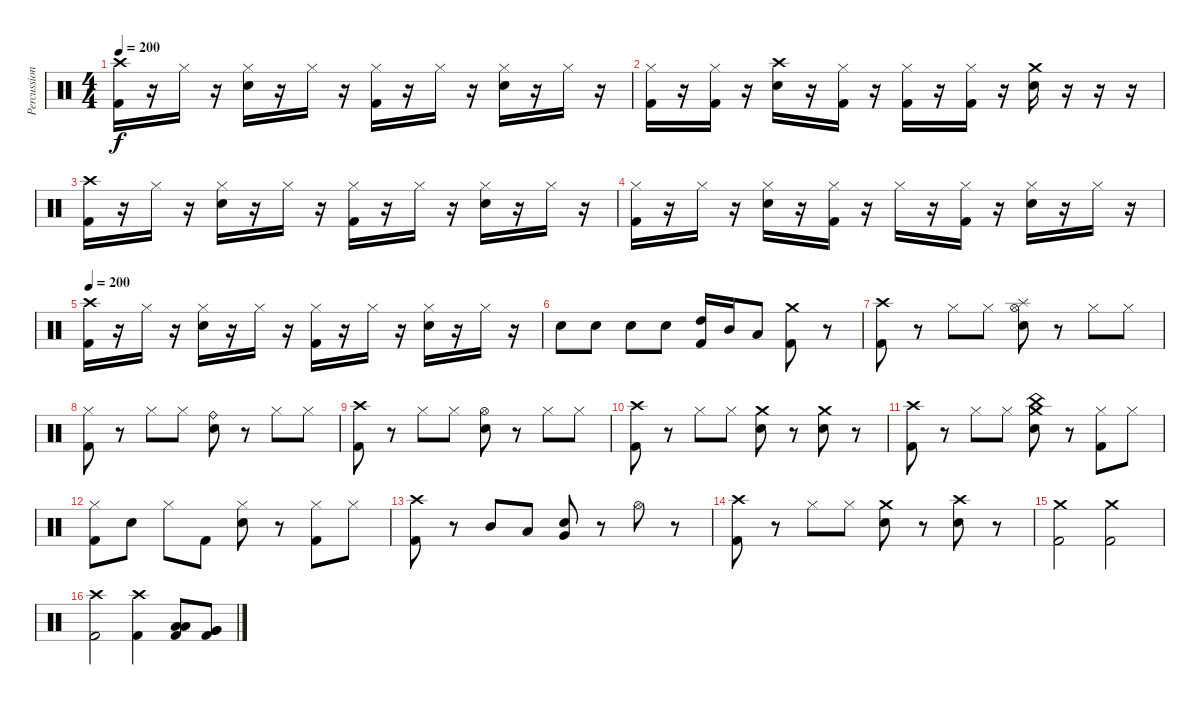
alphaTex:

\track ("Percussion" "Percussion") {instrument percussion}
\staff {score}
\articulation defaults
\ts (4 4)
\tempo 200
\clef neutral
\ks c
("Crash high (hit)" "Kick (hit) 2").16{dy f} r.16 "Hi-Hat (closed)".16 r.16 ("Hi-Hat (closed)" "Snare (hit) 2").16 r.16 "Hi-Hat (closed)".16 r.16 ("Hi-Hat (closed)" "Kick (hit) 2").16 r.16 "Hi-Hat (closed)".16 r.16 ("Hi-Hat (closed)" "Snare (hit) 2").16 r.16 "Hi-Hat (closed)".16 r.16 |
("Hi-Hat (closed)" "Kick (hit) 2").16 r.16 ("Hi-Hat (closed)" "Kick (hit) 2").16 r.16 ("Crash high (hit)" "Snare (hit) 2").16 r.16 ("Hi-Hat (closed)" "Kick (hit) 2").16 r.16 ("Hi-Hat (closed)" "Kick (hit) 2").16 r.16 ("Hi-Hat (closed)" "Kick (hit) 2").16 r.16 ("Crash medium (hit)" "Snare (hit) 2").16 r.16 r.16 r.16 |
("Crash high (hit)" "Kick (hit) 2").16 r.16 "Hi-Hat (closed)".16 r.16 ("Hi-Hat (closed)" "Snare (hit) 2").16 r.16 "Hi-Hat (closed)".16 r.16 ("Hi-Hat (closed)" "Kick (hit) 2").16 r.16 "Hi-Hat (closed)".16 r.16 ("Hi-Hat (closed)" "Snare (hit) 2").16 r.16 "Hi-Hat (closed)".16 r.16 |
("Hi-Hat (closed)" "Kick (hit) 2").16 r.16 "Hi-Hat (closed)".16 r.16 ("Hi-Hat (closed)" "Snare (hit) 2").16 r.16 ("Hi-Hat (closed)" "Kick (hit) 2").16 r.16 "Hi-Hat (closed)".16 r.16 ("Hi-Hat (closed)" "Kick (hit) 2").16 r.16 ("Hi-Hat (closed)" "Snare (hit) 2").16 r.16 "Hi-Hat (closed)".16 r.16 |
\tempo 200
("Crash high (hit)" "Kick (hit) 2").16 r.16 "Hi-Hat (closed)".16 r.16 ("Hi-Hat (closed)" "Snare (hit) 2").16 r.16 "Hi-Hat (closed)".16 r.16 ("Hi-Hat (closed)" "Kick (hit) 2").16 r.16 "Hi-Hat (closed)".16 r.16 ("Hi-Hat (closed)" "Snare (hit) 2").16 r.16 "Hi-Hat (closed)".16 r.16 |
"Snare (hit) 2".8 "Snare (hit) 2".8 "Snare (hit) 2".8 "Snare (hit) 2".8 ("High Tom (hit)" "Kick (hit) 2").16 "Mid Tom (hit)".16 "Low Tom (hit)".8 ("Crash medium (hit)" "Kick (hit) 2").8 r.8 |
("Crash high (hit)" "Kick (hit) 2").8 r.8 "Hi-Hat (closed)".8 "Hi-Hat (closed)".8 ("Hi-Hat (open)" "Splash (hit)" "Snare (hit) 2").8 r.8 "Hi-Hat (closed)".8 "Hi-Hat (closed)".8 |
("Hi-Hat (closed)" "Kick (hit) 2").8 r.8 "Hi-Hat (closed)".8 "Hi-Hat (closed)".8 ("Ride (bell)" "Snare (hit) 2").8 r.8 "Hi-Hat (closed)".8 "Hi-Hat (closed)".8 |
("Crash high (hit)" "Kick (hit) 2").8 r.8 "Hi-Hat (closed)".8 "Hi-Hat (closed)".8 ("Hi-Hat (open)" "Snare (hit) 2").8 r.8 "Hi-Hat (closed)".8 "Hi-Hat (closed)".8 |
("Crash high (hit)" "Kick (hit) 2").8 r.8 "Hi-Hat (closed)".8 "Hi-Hat (closed)".8 ("Crash medium (hit)" "Snare (hit) 2").8 r.8 ("Crash medium (hit)" "Snare (hit) 2").8 r.8 |
("Crash high (hit)" "Kick (hit) 2").8 r.8 "Hi-Hat (closed)".8 "Hi-Hat (closed)".8 ("China (hit)" "Crash medium (hit)" "Snare (hit) 2").8 r.8 ("Hi-Hat (closed)" "Kick (hit) 2").8 "Hi-Hat (closed)".8 |
("Hi-Hat (closed)" "Kick (hit) 2").8 "Snare (hit) 2".8 "Hi-Hat (closed)".8 "Kick (hit) 2".8 ("Hi-Hat (closed)" "Snare (hit) 2").8 r.8 ("Hi-Hat (closed)" "Kick (hit) 2").8 "Hi-Hat (closed)".8 |
("Crash high (hit)" "Kick (hit) 2").8 r.8 "Mid Tom (hit)".8 "Low Tom (hit)".8 ("Very Low Tom (hit)" "Snare (hit) 2").8 r.8 "Hi-Hat (open)".8 r.8 |
("Crash high (hit)" "Kick (hit) 2").8 r.8 "Hi-Hat (closed)".8 "Hi-Hat (closed)".8 ("Crash medium (hit)" "Snare (hit) 2").8 r.8 ("Crash high (hit)" "Snare (hit) 2").8 r.8 |
("Crash medium (hit)" "Kick (hit) 2").2 ("Crash medium (hit)" "Kick (hit) 2").2 |
("Crash high (hit)" "Kick (hit) 2").2 ("Crash high (hit)" "Kick (hit) 2").4 ("Low Tom (hit)" "Low Tom (hit)" "Kick (hit) 2").8 ("Very Low Tom (hit)" "Very Low Tom (hit)" "Kick (hit) 2").8
